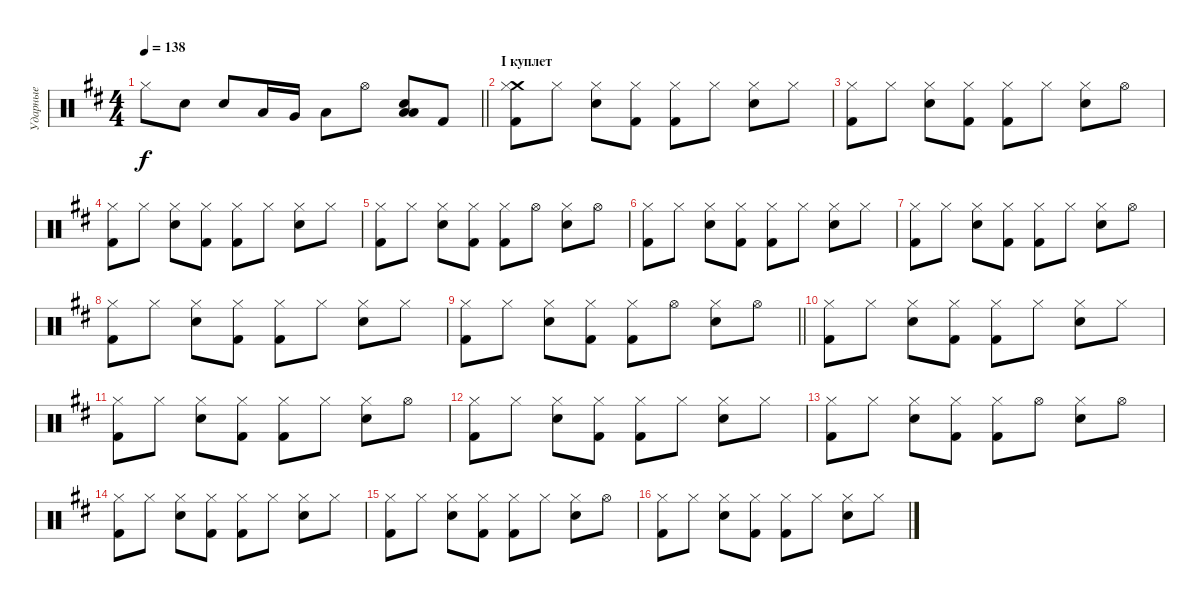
\track ("Ударные" "Ударные") {instrument percussion}
\staff {score}
\articulation defaults
\ts (4 4)
\tempo 138
\clef neutral
\barLineRight lightlight
\ks bminor "Hi-Hat (closed)".8{dy f} "Electric Snare (hit)".8 "Electric Snare (hit)".8 "Low Tom (hit)".16 "Very Low Tom (hit)".16 "Low Floor Tom (hit)".8 "Hi-Hat (open)".8
("Low Floor Tom (hit)" "Electric Snare (hit)" "Low Tom (hit)").8 "Kick (hit) 2".8 |
\section ("" "I куплет")
("Crash medium (hit)" "Kick (hit) 2" "Hi-Hat (closed)").8 "Hi-Hat (closed)".8 ("Electric Snare (hit)" "Hi-Hat (closed)").8 ("Kick (hit) 2" "Hi-Hat (closed)").8 ("Kick (hit) 2" "Hi-Hat (closed)").8 "Hi-Hat (closed)".8 ("Electric Snare (hit)" "Hi-Hat (closed)").8 "Hi-Hat (closed)".8 |
("Kick (hit) 2" "Hi-Hat (closed)").8 "Hi-Hat (closed)".8 ("Electric Snare (hit)" "Hi-Hat (closed)").8 ("Kick (hit) 2" "Hi-Hat (closed)").8 ("Kick (hit) 2" "Hi-Hat (closed)").8 "Hi-Hat (closed)".8 ("Electric Snare (hit)" "Hi-Hat (closed)").8 "Hi-Hat (open)".8 |
("Kick (hit) 2" "Hi-Hat (closed)").8 "Hi-Hat (closed)".8 ("Electric Snare (hit)" "Hi-Hat (closed)").8 ("Kick (hit) 2" "Hi-Hat (closed)").8 ("Kick (hit) 2" "Hi-Hat (closed)").8 "Hi-Hat (closed)".8 ("Electric Snare (hit)" "Hi-Hat (closed)").8 "Hi-Hat (closed)".8 |
("Kick (hit) 2" "Hi-Hat (closed)").8 "Hi-Hat (closed)".8 ("Electric Snare (hit)" "Hi-Hat (closed)").8 ("Kick (hit) 2" "Hi-Hat (closed)").8 ("Kick (hit) 2" "Hi-Hat (closed)").8 "Hi-Hat (open)".8 ("Electric Snare (hit)" "Hi-Hat (closed)").8 "Hi-Hat (open)".8 |
("Kick (hit) 2" "Hi-Hat (closed)").8 "Hi-Hat (closed)".8 ("Electric Snare (hit)" "Hi-Hat (closed)").8 ("Kick (hit) 2" "Hi-Hat (closed)").8 ("Kick (hit) 2" "Hi-Hat (closed)").8 "Hi-Hat (closed)".8 ("Electric Snare (hit)" "Hi-Hat (closed)").8 "Hi-Hat (closed)".8 |
("Kick (hit) 2" "Hi-Hat (closed)").8 "Hi-Hat (closed)".8 ("Electric Snare (hit)" "Hi-Hat (closed)").8 ("Kick (hit) 2" "Hi-Hat (closed)").8 ("Kick (hit) 2" "Hi-Hat (closed)").8 "Hi-Hat (closed)".8 ("Electric Snare (hit)" "Hi-Hat (closed)").8 "Hi-Hat (open)".8 |
("Kick (hit) 2" "Hi-Hat (closed)").8 "Hi-Hat (closed)".8 ("Electric Snare (hit)" "Hi-Hat (closed)").8 ("Kick (hit) 2" "Hi-Hat (closed)").8 ("Kick (hit) 2" "Hi-Hat (closed)").8 "Hi-Hat (closed)".8 ("Electric Snare (hit)" "Hi-Hat (closed)").8 "Hi-Hat (closed)".8 |
\barLineRight lightlight
("Kick (hit) 2" "Hi-Hat (closed)").8 "Hi-Hat (closed)".8 ("Electric Snare (hit)" "Hi-Hat (closed)").8 ("Kick (hit) 2" "Hi-Hat (closed)").8 ("Kick (hit) 2" "Hi-Hat (closed)").8 "Hi-Hat (open)".8 ("Electric Snare (hit)" "Hi-Hat (closed)").8 "Hi-Hat (open)".8 |
("Kick (hit) 2" "Hi-Hat (closed)").8 "Hi-Hat (closed)".8 ("Electric Snare (hit)" "Hi-Hat (closed)").8 ("Kick (hit) 2" "Hi-Hat (closed)").8 ("Kick (hit) 2" "Hi-Hat (closed)").8 "Hi-Hat (closed)".8 ("Electric Snare (hit)" "Hi-Hat (closed)").8 "Hi-Hat (closed)".8 |
("Kick (hit) 2" "Hi-Hat (closed)").8 "Hi-Hat (closed)".8 ("Electric Snare (hit)" "Hi-Hat (closed)").8 ("Kick (hit) 2" "Hi-Hat (closed)").8 ("Kick (hit) 2" "Hi-Hat (closed)").8 "Hi-Hat (closed)".8 ("Electric Snare (hit)" "Hi-Hat (closed)").8 "Hi-Hat (open)".8 |
("Kick (hit) 2" "Hi-Hat (closed)").8 "Hi-Hat (closed)".8 ("Electric Snare (hit)" "Hi-Hat (closed)").8 ("Kick (hit) 2" "Hi-Hat (closed)").8 ("Kick (hit) 2" "Hi-Hat (closed)").8 "Hi-Hat (closed)".8 ("Electric Snare (hit)" "Hi-Hat (closed)").8 "Hi-Hat (closed)".8 |
("Kick (hit) 2" "Hi-Hat (closed)").8 "Hi-Hat (closed)".8 ("Electric Snare (hit)" "Hi-Hat (closed)").8 ("Kick (hit) 2" "Hi-Hat (closed)").8 ("Kick (hit) 2" "Hi-Hat (closed)").8 "Hi-Hat (open)".8 ("Electric Snare (hit)" "Hi-Hat (closed)").8 "Hi-Hat (open)".8 |
("Kick (hit) 2" "Hi-Hat (closed)").8 "Hi-Hat (closed)".8 ("Electric Snare (hit)" "Hi-Hat (closed)").8 ("Kick (hit) 2" "Hi-Hat (closed)").8 ("Kick (hit) 2" "Hi-Hat (closed)").8 "Hi-Hat (closed)".8 ("Electric Snare (hit)" "Hi-Hat (closed)").8 "Hi-Hat (closed)".8 |
("Kick (hit) 2" "Hi-Hat (closed)").8 "Hi-Hat (closed)".8 ("Electric Snare (hit)" "Hi-Hat (closed)").8 ("Kick (hit) 2" "Hi-Hat (closed)").8 ("Kick (hit) 2" "Hi-Hat (closed)").8 "Hi-Hat (closed)".8 ("Electric Snare (hit)" "Hi-Hat (closed)").8 "Hi-Hat (open)".8 |
("Kick (hit) 2" "Hi-Hat (closed)").8 "Hi-Hat (closed)".8 ("Electric Snare (hit)" "Hi-Hat (closed)").8 ("Kick (hit) 2" "Hi-Hat (closed)").8 ("Kick (hit) 2" "Hi-Hat (closed)").8 "Hi-Hat (closed)".8 ("Electric Snare (hit)" "Hi-Hat (closed)").8 "Hi-Hat (closed)".8
